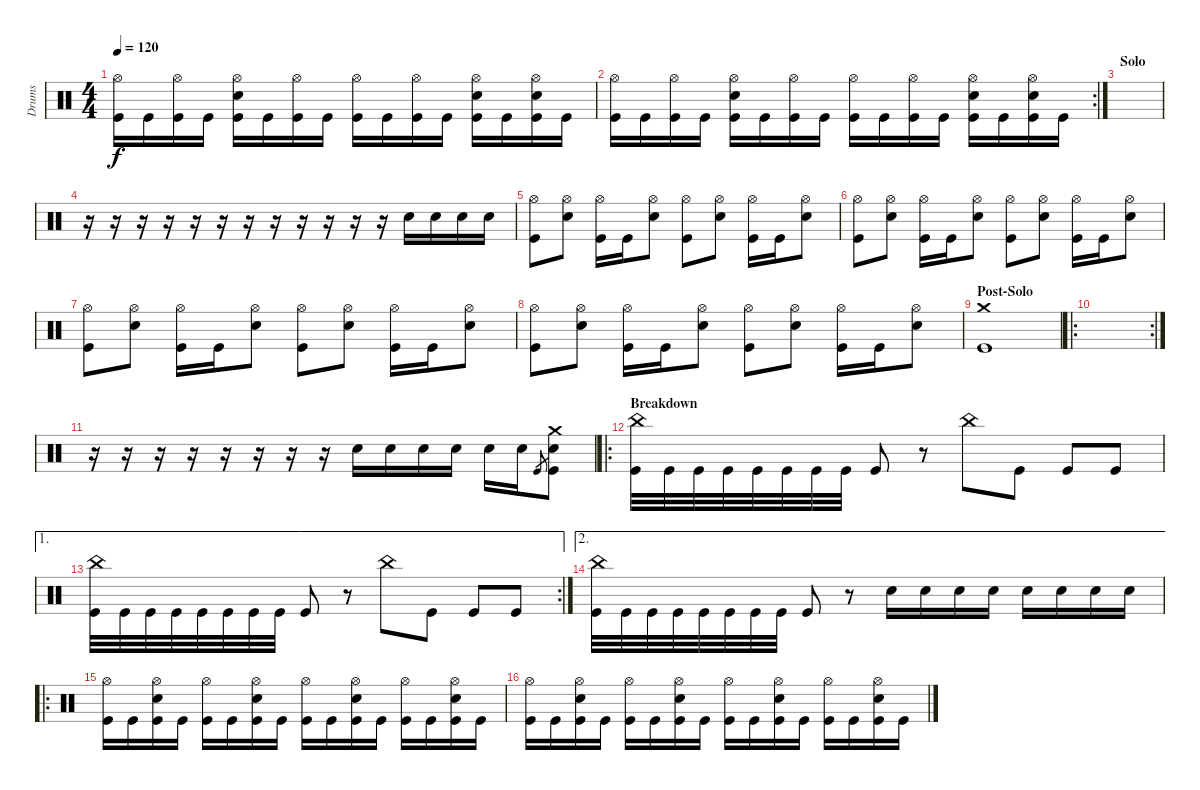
\track ("Drums" "Drums") {instrument percussion}
\staff {score}
\articulation defaults
\ts (4 4)
\tempo 120
\clef neutral
\ks c
("Hi-Hat (open)" "Kick (hit)").16{dy f} "Kick (hit)".16 ("Hi-Hat (open)" "Kick (hit)").16 "Kick (hit)".16 ("Hi-Hat (open)" "Snare (hit) 2" "Kick (hit)").16 "Kick (hit)".16 ("Hi-Hat (open)" "Kick (hit)").16 "Kick (hit)".16 ("Hi-Hat (open)" "Kick (hit)").16 "Kick (hit)".16 ("Hi-Hat (open)" "Kick (hit)").16 "Kick (hit)".16 ("Hi-Hat (open)" "Snare (hit) 2" "Kick (hit)").16 "Kick (hit)".16 ("Hi-Hat (open)" "Snare (hit) 2" "Kick (hit)").16 "Kick (hit)".16 |
\rc 2
("Hi-Hat (open)" "Kick (hit)").16 "Kick (hit)".16 ("Hi-Hat (open)" "Kick (hit)").16 "Kick (hit)".16 ("Hi-Hat (open)" "Snare (hit) 2" "Kick (hit)").16 "Kick (hit)".16 ("Hi-Hat (open)" "Kick (hit)").16 "Kick (hit)".16 ("Hi-Hat (open)" "Kick (hit)").16 "Kick (hit)".16 ("Hi-Hat (open)" "Kick (hit)").16 "Kick (hit)".16 ("Hi-Hat (open)" "Snare (hit) 2" "Kick (hit)").16 "Kick (hit)".16 ("Hi-Hat (open)" "Snare (hit) 2" "Kick (hit)").16 "Kick (hit)".16 |
\section ("" "Solo")
|
r.16 r.16 r.16 r.16 r.16 r.16 r.16 r.16 r.16 r.16 r.16 r.16 "Snare (hit) 2".16 "Snare (hit) 2".16 "Snare (hit) 2".16 "Snare (hit) 2".16 |
("Hi-Hat (open)" "Kick (hit)").8 ("Hi-Hat (open)" "Snare (hit) 2").8 ("Hi-Hat (open)" "Kick (hit)").16 "Kick (hit)".16 ("Hi-Hat (open)" "Snare (hit) 2").8 ("Hi-Hat (open)" "Kick (hit)").8 ("Hi-Hat (open)" "Snare (hit) 2").8 ("Hi-Hat (open)" "Kick (hit)").16 "Kick (hit)".16 ("Hi-Hat (open)" "Snare (hit) 2").8 |
("Hi-Hat (open)" "Kick (hit)").8 ("Hi-Hat (open)" "Snare (hit) 2").8 ("Hi-Hat (open)" "Kick (hit)").16 "Kick (hit)".16 ("Hi-Hat (open)" "Snare (hit) 2").8 ("Hi-Hat (open)" "Kick (hit)").8 ("Hi-Hat (open)" "Snare (hit) 2").8 ("Hi-Hat (open)" "Kick (hit)").16 "Kick (hit)".16 ("Hi-Hat (open)" "Snare (hit) 2").8 |
("Hi-Hat (open)" "Kick (hit)").8 ("Hi-Hat (open)" "Snare (hit) 2").8 ("Hi-Hat (open)" "Kick (hit)").16 "Kick (hit)".16 ("Hi-Hat (open)" "Snare (hit) 2").8 ("Hi-Hat (open)" "Kick (hit)").8 ("Hi-Hat (open)" "Snare (hit) 2").8 ("Hi-Hat (open)" "Kick (hit)").16 "Kick (hit)".16 ("Hi-Hat (open)" "Snare (hit) 2").8 |
("Hi-Hat (open)" "Kick (hit)").8 ("Hi-Hat (open)" "Snare (hit) 2").8 ("Hi-Hat (open)" "Kick (hit)").16 "Kick (hit)".16 ("Hi-Hat (open)" "Snare (hit) 2").8 ("Hi-Hat (open)" "Kick (hit)").8 ("Hi-Hat (open)" "Snare (hit) 2").8 ("Hi-Hat (open)" "Kick (hit)").16 "Kick (hit)".16 ("Hi-Hat (open)" "Snare (hit) 2").8 |
\section ("" "Post-Solo")
("Crash medium (hit)" "Kick (hit)").1 |
\ro
\rc 2
|
r.16 r.16 r.16 r.16 r.16 r.16 r.16 r.16 "Snare (hit) 2".16 "Snare (hit) 2".16 "Snare (hit) 2".16 "Snare (hit) 2".16 "Snare (hit) 2".16 "Snare (hit) 2".16 "Kick (hit)".8{gr} ("Crash medium (hit)" "Snare (hit) 2" "Kick (hit)").8 |
\ro
\section ("" "Breakdown")
("China (hit)" "Kick (hit)").32 "Kick (hit)".32 "Kick (hit)".32 "Kick (hit)".32 "Kick (hit)".32 "Kick (hit)".32 "Kick (hit)".32 "Kick (hit)".32 "Kick (hit)".8 r.8 "China (hit)".8 "Kick (hit)".8 "Kick (hit)".8 "Kick (hit)".8 |
\ae 1
\rc 2
("China (hit)" "Kick (hit)").32 "Kick (hit)".32 "Kick (hit)".32 "Kick (hit)".32 "Kick (hit)".32 "Kick (hit)".32 "Kick (hit)".32 "Kick (hit)".32 "Kick (hit)".8 r.8 "China (hit)".8 "Kick (hit)".8 "Kick (hit)".8 "Kick (hit)".8 |
\ae 2
("China (hit)" "Kick (hit)").32 "Kick (hit)".32 "Kick (hit)".32 "Kick (hit)".32 "Kick (hit)".32 "Kick (hit)".32 "Kick (hit)".32 "Kick (hit)".32 "Kick (hit)".8 r.8 "Snare (hit) 2".16 "Snare (hit) 2".16 "Snare (hit) 2".16 "Snare (hit) 2".16 "Snare (hit) 2".16 "Snare (hit) 2".16 "Snare (hit) 2".16 "Snare (hit) 2".16 |
\ro
("Hi-Hat (open)" "Kick (hit)").16 "Kick (hit)".16 ("Hi-Hat (open)" "Snare (hit) 2" "Kick (hit)").16 "Kick (hit)".16 ("Hi-Hat (open)" "Kick (hit)").16 "Kick (hit)".16 ("Hi-Hat (open)" "Snare (hit) 2" "Kick (hit)").16 "Kick (hit)".16 ("Hi-Hat (open)" "Kick (hit)").16 "Kick (hit)".16 ("Hi-Hat (open)" "Snare (hit) 2" "Kick (hit)").16 "Kick (hit)".16 ("Hi-Hat (open)" "Kick (hit)").16 "Kick (hit)".16 ("Hi-Hat (open)" "Snare (hit) 2" "Kick (hit)").16 "Kick (hit)".16 |
("Hi-Hat (open)" "Kick (hit)").16 "Kick (hit)".16 ("Hi-Hat (open)" "Snare (hit) 2" "Kick (hit)").16 "Kick (hit)".16 ("Hi-Hat (open)" "Kick (hit)").16 "Kick (hit)".16 ("Hi-Hat (open)" "Snare (hit) 2" "Kick (hit)").16 "Kick (hit)".16 ("Hi-Hat (open)" "Kick (hit)").16 "Kick (hit)".16 ("Hi-Hat (open)" "Snare (hit) 2" "Kick (hit)").16 "Kick (hit)".16 ("Hi-Hat (open)" "Kick (hit)").16 "Kick (hit)".16 ("Hi-Hat (open)" "Snare (hit) 2" "Kick (hit)").16 "Kick (hit)".16
